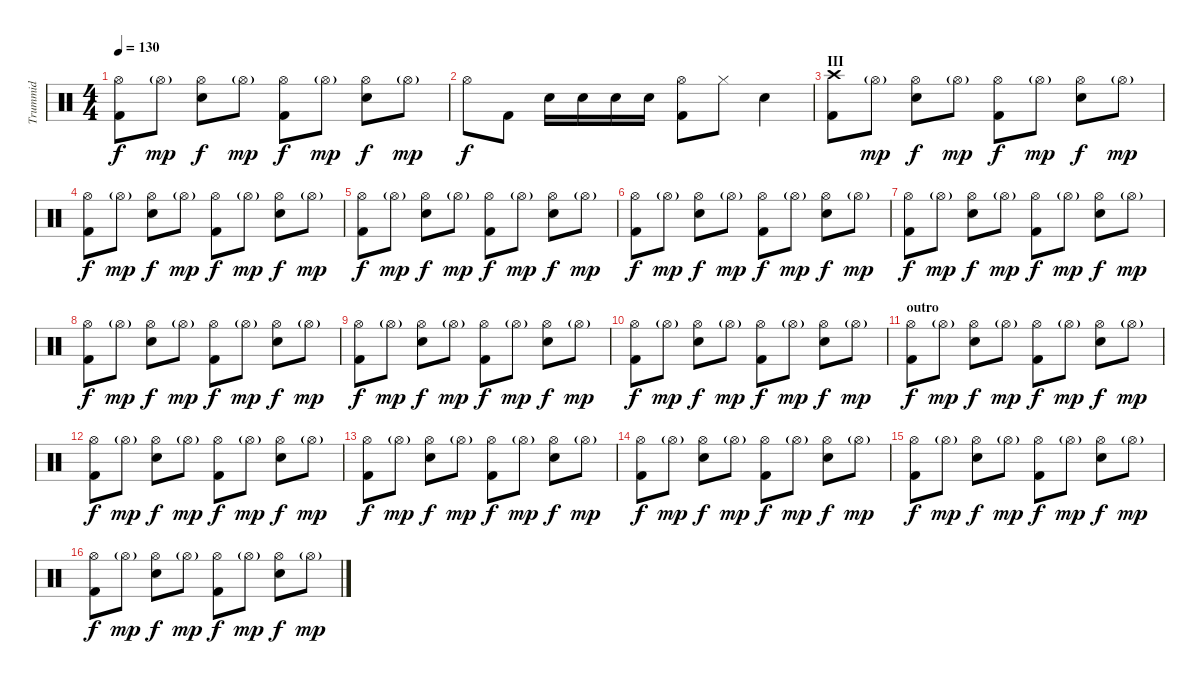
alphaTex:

\track ("Trummid" "Trummid") {instrument percussion}
\staff {score}
\articulation defaults
\ts (4 4)
\tempo 130
\clef neutral
\ks c
("Hi-Hat (open)" "Kick (hit) 2").8{dy f} "Hi-Hat (open)"{g}.8{dy mp} ("Hi-Hat (open)" "Snare (hit) 2").8{dy f} "Hi-Hat (open)"{g}.8{dy mp} ("Hi-Hat (open)" "Kick (hit) 2").8{dy f} "Hi-Hat (open)"{g}.8{dy mp} ("Hi-Hat (open)" "Snare (hit) 2").8{dy f} "Hi-Hat (open)"{g}.8{dy mp} |
"Hi-Hat (open)".8{dy f} "Kick (hit) 2".8 "Snare (hit) 2".16 "Snare (hit) 2".16 "Snare (hit) 2".16 "Snare (hit) 2".16 ("Hi-Hat (open)" "Kick (hit) 2").8 "Hi-Hat (closed)".8 "Snare (hit) 2".4 |
\section ("" "III")
("Crash high (hit)" "Kick (hit) 2").8 "Hi-Hat (open)"{g}.8{dy mp} ("Hi-Hat (open)" "Snare (hit) 2").8{dy f} "Hi-Hat (open)"{g}.8{dy mp} ("Hi-Hat (open)" "Kick (hit) 2").8{dy f} "Hi-Hat (open)"{g}.8{dy mp} ("Hi-Hat (open)" "Snare (hit) 2").8{dy f} "Hi-Hat (open)"{g}.8{dy mp} |
("Hi-Hat (open)" "Kick (hit) 2").8{dy f} "Hi-Hat (open)"{g}.8{dy mp} ("Hi-Hat (open)" "Snare (hit) 2").8{dy f} "Hi-Hat (open)"{g}.8{dy mp} ("Hi-Hat (open)" "Kick (hit) 2").8{dy f} "Hi-Hat (open)"{g}.8{dy mp} ("Hi-Hat (open)" "Snare (hit) 2").8{dy f} "Hi-Hat (open)"{g}.8{dy mp} |
("Hi-Hat (open)" "Kick (hit) 2").8{dy f} "Hi-Hat (open)"{g}.8{dy mp} ("Hi-Hat (open)" "Snare (hit) 2").8{dy f} "Hi-Hat (open)"{g}.8{dy mp} ("Hi-Hat (open)" "Kick (hit) 2").8{dy f} "Hi-Hat (open)"{g}.8{dy mp} ("Hi-Hat (open)" "Snare (hit) 2").8{dy f} "Hi-Hat (open)"{g}.8{dy mp} |
("Hi-Hat (open)" "Kick (hit) 2").8{dy f} "Hi-Hat (open)"{g}.8{dy mp} ("Hi-Hat (open)" "Snare (hit) 2").8{dy f} "Hi-Hat (open)"{g}.8{dy mp} ("Hi-Hat (open)" "Kick (hit) 2").8{dy f} "Hi-Hat (open)"{g}.8{dy mp} ("Hi-Hat (open)" "Snare (hit) 2").8{dy f} "Hi-Hat (open)"{g}.8{dy mp} |
("Hi-Hat (open)" "Kick (hit) 2").8{dy f} "Hi-Hat (open)"{g}.8{dy mp} ("Hi-Hat (open)" "Snare (hit) 2").8{dy f} "Hi-Hat (open)"{g}.8{dy mp} ("Hi-Hat (open)" "Kick (hit) 2").8{dy f} "Hi-Hat (open)"{g}.8{dy mp} ("Hi-Hat (open)" "Snare (hit) 2").8{dy f} "Hi-Hat (open)"{g}.8{dy mp} |
("Hi-Hat (open)" "Kick (hit) 2").8{dy f} "Hi-Hat (open)"{g}.8{dy mp} ("Hi-Hat (open)" "Snare (hit) 2").8{dy f} "Hi-Hat (open)"{g}.8{dy mp} ("Hi-Hat (open)" "Kick (hit) 2").8{dy f} "Hi-Hat (open)"{g}.8{dy mp} ("Hi-Hat (open)" "Snare (hit) 2").8{dy f} "Hi-Hat (open)"{g}.8{dy mp} |
("Hi-Hat (open)" "Kick (hit) 2").8{dy f} "Hi-Hat (open)"{g}.8{dy mp} ("Hi-Hat (open)" "Snare (hit) 2").8{dy f} "Hi-Hat (open)"{g}.8{dy mp} ("Hi-Hat (open)" "Kick (hit) 2").8{dy f} "Hi-Hat (open)"{g}.8{dy mp} ("Hi-Hat (open)" "Snare (hit) 2").8{dy f} "Hi-Hat (open)"{g}.8{dy mp} |
("Hi-Hat (open)" "Kick (hit) 2").8{dy f} "Hi-Hat (open)"{g}.8{dy mp} ("Hi-Hat (open)" "Snare (hit) 2").8{dy f} "Hi-Hat (open)"{g}.8{dy mp} ("Hi-Hat (open)" "Kick (hit) 2").8{dy f} "Hi-Hat (open)"{g}.8{dy mp} ("Hi-Hat (open)" "Snare (hit) 2").8{dy f} "Hi-Hat (open)"{g}.8{dy mp} |
\section ("" "outro")
("Hi-Hat (open)" "Kick (hit) 2").8{dy f} "Hi-Hat (open)"{g}.8{dy mp} ("Hi-Hat (open)" "Snare (hit) 2").8{dy f} "Hi-Hat (open)"{g}.8{dy mp} ("Hi-Hat (open)" "Kick (hit) 2").8{dy f} "Hi-Hat (open)"{g}.8{dy mp} ("Hi-Hat (open)" "Snare (hit) 2").8{dy f} "Hi-Hat (open)"{g}.8{dy mp} |
("Hi-Hat (open)" "Kick (hit) 2").8{dy f} "Hi-Hat (open)"{g}.8{dy mp} ("Hi-Hat (open)" "Snare (hit) 2").8{dy f} "Hi-Hat (open)"{g}.8{dy mp} ("Hi-Hat (open)" "Kick (hit) 2").8{dy f} "Hi-Hat (open)"{g}.8{dy mp} ("Hi-Hat (open)" "Snare (hit) 2").8{dy f} "Hi-Hat (open)"{g}.8{dy mp} |
("Hi-Hat (open)" "Kick (hit) 2").8{dy f} "Hi-Hat (open)"{g}.8{dy mp} ("Hi-Hat (open)" "Snare (hit) 2").8{dy f} "Hi-Hat (open)"{g}.8{dy mp} ("Hi-Hat (open)" "Kick (hit) 2").8{dy f} "Hi-Hat (open)"{g}.8{dy mp} ("Hi-Hat (open)" "Snare (hit) 2").8{dy f} "Hi-Hat (open)"{g}.8{dy mp} |
("Hi-Hat (open)" "Kick (hit) 2").8{dy f} "Hi-Hat (open)"{g}.8{dy mp} ("Hi-Hat (open)" "Snare (hit) 2").8{dy f} "Hi-Hat (open)"{g}.8{dy mp} ("Hi-Hat (open)" "Kick (hit) 2").8{dy f} "Hi-Hat (open)"{g}.8{dy mp} ("Hi-Hat (open)" "Snare (hit) 2").8{dy f} "Hi-Hat (open)"{g}.8{dy mp} |
("Hi-Hat (open)" "Kick (hit) 2").8{dy f} "Hi-Hat (open)"{g}.8{dy mp} ("Hi-Hat (open)" "Snare (hit) 2").8{dy f} "Hi-Hat (open)"{g}.8{dy mp} ("Hi-Hat (open)" "Kick (hit) 2").8{dy f} "Hi-Hat (open)"{g}.8{dy mp} ("Hi-Hat (open)" "Snare (hit) 2").8{dy f} "Hi-Hat (open)"{g}.8{dy mp} |
("Hi-Hat (open)" "Kick (hit) 2").8{dy f} "Hi-Hat (open)"{g}.8{dy mp} ("Hi-Hat (open)" "Snare (hit) 2").8{dy f} "Hi-Hat (open)"{g}.8{dy mp} ("Hi-Hat (open)" "Kick (hit) 2").8{dy f} "Hi-Hat (open)"{g}.8{dy mp} ("Hi-Hat (open)" "Snare (hit) 2").8{dy f} "Hi-Hat (open)"{g}.8{dy mp}
